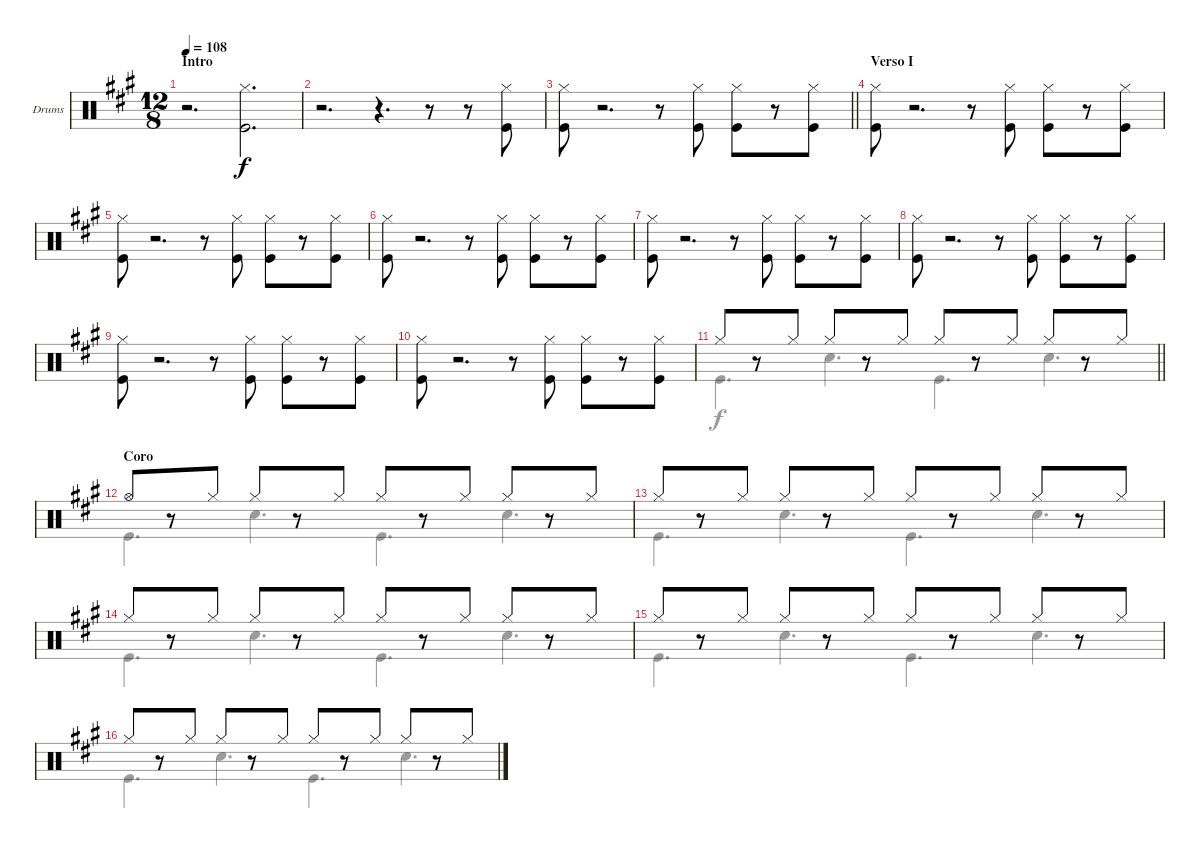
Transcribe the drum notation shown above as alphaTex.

\bracketExtendMode groupsimilarinstruments
\firstSystemTrackNameOrientation horizontal
\otherSystemsTrackNameOrientation horizontal
\track ("Drumkit" "Drums") {instrument percussion}
\staff {score}
\articulation defaults
\voice
\ts (12 8)
\beaming (8 3 3 3 3)
\section ("" "Intro")
\tempo 108
\clef neutral
\ks a
r.2{d dy f} ("Hi-Hat (closed)" "Kick (hit)").2{d} |
r.2{d} r.4{d} r.8 r.8 ("Hi-Hat (closed)" "Kick (hit)").8 |
\barLineRight lightlight
("Hi-Hat (closed)" "Kick (hit)").8 r.2{d} r.8 ("Hi-Hat (closed)" "Kick (hit)").8 ("Hi-Hat (closed)" "Kick (hit)").8 r.8 ("Hi-Hat (closed)" "Kick (hit)").8 |
\section ("" "Verso I")
("Hi-Hat (closed)" "Kick (hit)").8 r.2{d} r.8 ("Hi-Hat (closed)" "Kick (hit)").8 ("Hi-Hat (closed)" "Kick (hit)").8 r.8 ("Hi-Hat (closed)" "Kick (hit)").8 |
("Hi-Hat (closed)" "Kick (hit)").8 r.2{d} r.8 ("Hi-Hat (closed)" "Kick (hit)").8 ("Hi-Hat (closed)" "Kick (hit)").8 r.8 ("Hi-Hat (closed)" "Kick (hit)").8 |
("Hi-Hat (closed)" "Kick (hit)").8 r.2{d} r.8 ("Hi-Hat (closed)" "Kick (hit)").8 ("Hi-Hat (closed)" "Kick (hit)").8 r.8 ("Hi-Hat (closed)" "Kick (hit)").8 |
("Hi-Hat (closed)" "Kick (hit)").8 r.2{d} r.8 ("Hi-Hat (closed)" "Kick (hit)").8 ("Hi-Hat (closed)" "Kick (hit)").8 r.8 ("Hi-Hat (closed)" "Kick (hit)").8 |
("Hi-Hat (closed)" "Kick (hit)").8 r.2{d} r.8 ("Hi-Hat (closed)" "Kick (hit)").8 ("Hi-Hat (closed)" "Kick (hit)").8 r.8 ("Hi-Hat (closed)" "Kick (hit)").8 |
("Hi-Hat (closed)" "Kick (hit)").8 r.2{d} r.8 ("Hi-Hat (closed)" "Kick (hit)").8 ("Hi-Hat (closed)" "Kick (hit)").8 r.8 ("Hi-Hat (closed)" "Kick (hit)").8 |
("Hi-Hat (closed)" "Kick (hit)").8 r.2{d} r.8 ("Hi-Hat (closed)" "Kick (hit)").8 ("Hi-Hat (closed)" "Kick (hit)").8 r.8 ("Hi-Hat (closed)" "Kick (hit)").8 |
\barLineRight lightlight "Hi-Hat (closed)".8
r.8 "Hi-Hat (closed)".8 "Hi-Hat (closed)".8 r.8 "Hi-Hat (closed)".8 "Hi-Hat (closed)".8 r.8 "Hi-Hat (closed)".8 "Hi-Hat (closed)".8 r.8 "Hi-Hat (closed)".8 |
\section ("" "Coro")
"Hi-Hat (open)".8 r.8 "Hi-Hat (closed)".8 "Hi-Hat (closed)".8 r.8 "Hi-Hat (closed)".8 "Hi-Hat (closed)".8 r.8 "Hi-Hat (closed)".8 "Hi-Hat (closed)".8 r.8 "Hi-Hat (closed)".8 |
"Hi-Hat (closed)".8 r.8 "Hi-Hat (closed)".8 "Hi-Hat (closed)".8 r.8 "Hi-Hat (closed)".8 "Hi-Hat (closed)".8 r.8 "Hi-Hat (closed)".8 "Hi-Hat (closed)".8 r.8 "Hi-Hat (closed)".8 |
"Hi-Hat (closed)".8 r.8 "Hi-Hat (closed)".8 "Hi-Hat (closed)".8 r.8 "Hi-Hat (closed)".8 "Hi-Hat (closed)".8 r.8 "Hi-Hat (closed)".8 "Hi-Hat (closed)".8 r.8 "Hi-Hat (closed)".8 |
"Hi-Hat (closed)".8 r.8 "Hi-Hat (closed)".8 "Hi-Hat (closed)".8 r.8 "Hi-Hat (closed)".8 "Hi-Hat (closed)".8 r.8 "Hi-Hat (closed)".8 "Hi-Hat (closed)".8 r.8 "Hi-Hat (closed)".8 |
"Hi-Hat (closed)".8 r.8 "Hi-Hat (closed)".8 "Hi-Hat (closed)".8 r.8 "Hi-Hat (closed)".8 "Hi-Hat (closed)".8 r.8 "Hi-Hat (closed)".8 "Hi-Hat (closed)".8 r.8 "Hi-Hat (closed)".8
\voice
\clef neutral
\ottava regular
\simile none
\ks a
|
|
\barLineRight lightlight
|
|
|
|
|
|
|
|
\barLineRight lightlight "Kick (hit)".4{d} "Snare (hit) 2".4{d} "Kick (hit)".4{d} "Snare (hit) 2".4{d}
|
"Kick (hit)".4{d} "Snare (hit) 2".4{d} "Kick (hit)".4{d} "Snare (hit) 2".4{d} |
"Kick (hit)".4{d} "Snare (hit) 2".4{d} "Kick (hit)".4{d} "Snare (hit) 2".4{d} |
"Kick (hit)".4{d} "Snare (hit) 2".4{d} "Kick (hit)".4{d} "Snare (hit) 2".4{d} |
"Kick (hit)".4{d} "Snare (hit) 2".4{d} "Kick (hit)".4{d} "Snare (hit) 2".4{d} |
"Kick (hit)".4{d} "Snare (hit) 2".4{d} "Kick (hit)".4{d} "Snare (hit) 2".4{d}
